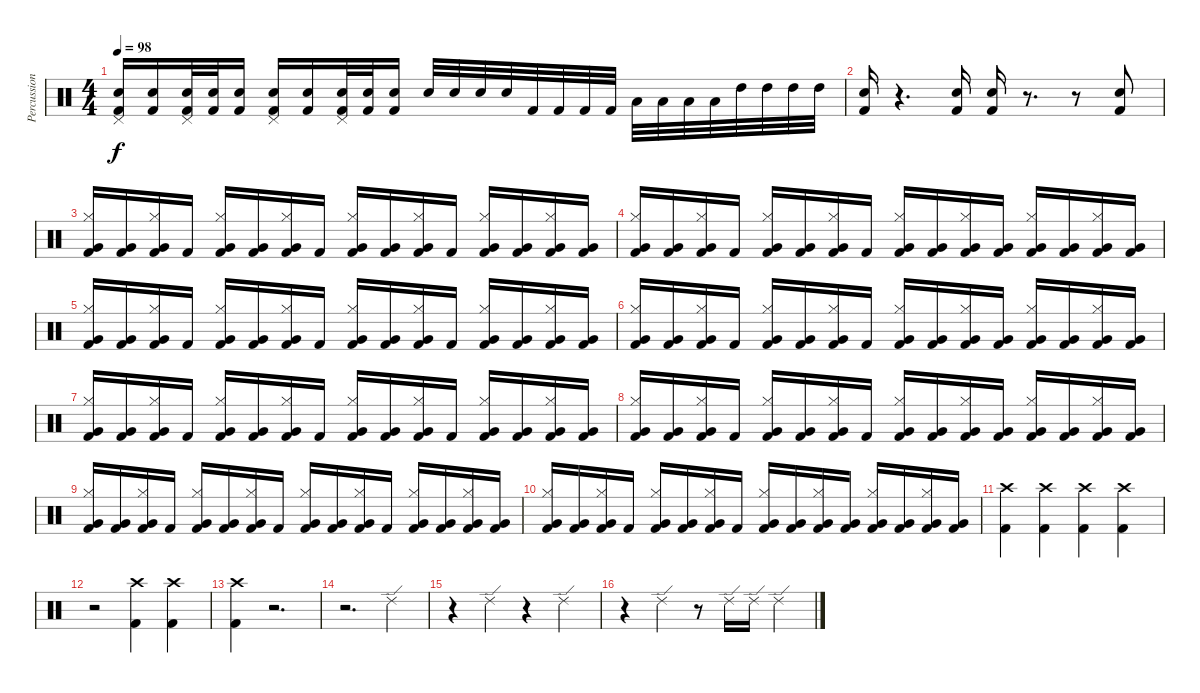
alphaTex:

\track ("Percussion" "Percussion") {instrument percussion}
\staff {score}
\articulation defaults
\ts (4 4)
\tempo 98
\clef neutral
\ks c
("Pedal Hi-Hat (hit)" "Snare (hit) 2" "Kick (hit) 2").16{dy f} ("Snare (hit) 2" "Kick (hit) 2").16 ("Pedal Hi-Hat (hit)" "Snare (hit) 2" "Kick (hit) 2").32 ("Snare (hit) 2" "Kick (hit) 2").32 ("Snare (hit) 2" "Kick (hit) 2").16 ("Pedal Hi-Hat (hit)" "Snare (hit) 2" "Kick (hit) 2").16 ("Snare (hit) 2" "Kick (hit) 2").16 ("Pedal Hi-Hat (hit)" "Snare (hit) 2" "Kick (hit) 2").32 ("Snare (hit) 2" "Kick (hit) 2").32 ("Snare (hit) 2" "Kick (hit) 2").16 "Snare (hit) 2".32 "Snare (hit) 2".32 "Snare (hit) 2".32 "Snare (hit) 2".32 "Kick (hit) 2".32 "Kick (hit) 2".32 "Kick (hit) 2".32 "Kick (hit) 2".32 "Low Tom (hit)".32 "Low Tom (hit)".32 "Low Tom (hit)".32 "Low Tom (hit)".32 "High Tom (hit)".32 "High Tom (hit)".32 "High Tom (hit)".32 "High Tom (hit)".32 |
("Snare (hit) 2" "Kick (hit) 2").16 r.4{d} ("Snare (hit) 2" "Kick (hit) 2").16 ("Snare (hit) 2" "Kick (hit) 2").16 r.8{d} r.8 ("Snare (hit) 2" "Kick (hit) 2").8 |
("Hi-Hat (closed)" "Very Low Tom (hit)" "Kick (hit) 2").16 ("Very Low Tom (hit)" "Kick (hit) 2").16 ("Hi-Hat (closed)" "Very Low Tom (hit)" "Kick (hit) 2").16 "Kick (hit) 2".16 ("Hi-Hat (closed)" "Very Low Tom (hit)" "Kick (hit) 2").16 ("Very Low Tom (hit)" "Kick (hit) 2").16 ("Hi-Hat (closed)" "Very Low Tom (hit)" "Kick (hit) 2").16 "Kick (hit) 2".16 ("Hi-Hat (closed)" "Very Low Tom (hit)" "Kick (hit) 2").16 ("Very Low Tom (hit)" "Kick (hit) 2").16 ("Hi-Hat (closed)" "Very Low Tom (hit)" "Kick (hit) 2").16 "Kick (hit) 2".16 ("Hi-Hat (closed)" "Very Low Tom (hit)" "Kick (hit) 2").16 ("Very Low Tom (hit)" "Kick (hit) 2").16 ("Hi-Hat (closed)" "Very Low Tom (hit)" "Kick (hit) 2").16 ("Very Low Tom (hit)" "Kick (hit) 2").16 |
("Hi-Hat (closed)" "Very Low Tom (hit)" "Kick (hit) 2").16 ("Very Low Tom (hit)" "Kick (hit) 2").16 ("Hi-Hat (closed)" "Very Low Tom (hit)" "Kick (hit) 2").16 "Kick (hit) 2".16 ("Hi-Hat (closed)" "Very Low Tom (hit)" "Kick (hit) 2").16 ("Very Low Tom (hit)" "Kick (hit) 2").16 ("Hi-Hat (closed)" "Very Low Tom (hit)" "Kick (hit) 2").16 "Kick (hit) 2".16 ("Hi-Hat (closed)" "Very Low Tom (hit)" "Kick (hit) 2").16 ("Very Low Tom (hit)" "Kick (hit) 2").16 ("Hi-Hat (closed)" "Very Low Tom (hit)" "Kick (hit) 2").16 ("Very Low Tom (hit)" "Kick (hit) 2").16 ("Hi-Hat (closed)" "Very Low Tom (hit)" "Kick (hit) 2").16 ("Very Low Tom (hit)" "Kick (hit) 2").16 ("Hi-Hat (closed)" "Very Low Tom (hit)" "Kick (hit) 2").16 ("Very Low Tom (hit)" "Kick (hit) 2").16 |
("Hi-Hat (closed)" "Very Low Tom (hit)" "Kick (hit) 2").16 ("Very Low Tom (hit)" "Kick (hit) 2").16 ("Hi-Hat (closed)" "Very Low Tom (hit)" "Kick (hit) 2").16 "Kick (hit) 2".16 ("Hi-Hat (closed)" "Very Low Tom (hit)" "Kick (hit) 2").16 ("Very Low Tom (hit)" "Kick (hit) 2").16 ("Hi-Hat (closed)" "Very Low Tom (hit)" "Kick (hit) 2").16 "Kick (hit) 2".16 ("Hi-Hat (closed)" "Very Low Tom (hit)" "Kick (hit) 2").16 ("Very Low Tom (hit)" "Kick (hit) 2").16 ("Hi-Hat (closed)" "Very Low Tom (hit)" "Kick (hit) 2").16 "Kick (hit) 2".16 ("Hi-Hat (closed)" "Very Low Tom (hit)" "Kick (hit) 2").16 ("Very Low Tom (hit)" "Kick (hit) 2").16 ("Hi-Hat (closed)" "Very Low Tom (hit)" "Kick (hit) 2").16 ("Very Low Tom (hit)" "Kick (hit) 2").16 |
("Hi-Hat (closed)" "Very Low Tom (hit)" "Kick (hit) 2").16 ("Very Low Tom (hit)" "Kick (hit) 2").16 ("Hi-Hat (closed)" "Very Low Tom (hit)" "Kick (hit) 2").16 "Kick (hit) 2".16 ("Hi-Hat (closed)" "Very Low Tom (hit)" "Kick (hit) 2").16 ("Very Low Tom (hit)" "Kick (hit) 2").16 ("Hi-Hat (closed)" "Very Low Tom (hit)" "Kick (hit) 2").16 "Kick (hit) 2".16 ("Hi-Hat (closed)" "Very Low Tom (hit)" "Kick (hit) 2").16 ("Very Low Tom (hit)" "Kick (hit) 2").16 ("Hi-Hat (closed)" "Very Low Tom (hit)" "Kick (hit) 2").16 ("Very Low Tom (hit)" "Kick (hit) 2").16 ("Hi-Hat (closed)" "Very Low Tom (hit)" "Kick (hit) 2").16 ("Very Low Tom (hit)" "Kick (hit) 2").16 ("Hi-Hat (closed)" "Very Low Tom (hit)" "Kick (hit) 2").16 ("Very Low Tom (hit)" "Kick (hit) 2").16 |
("Hi-Hat (closed)" "Very Low Tom (hit)" "Kick (hit) 2").16 ("Very Low Tom (hit)" "Kick (hit) 2").16 ("Hi-Hat (closed)" "Very Low Tom (hit)" "Kick (hit) 2").16 "Kick (hit) 2".16 ("Hi-Hat (closed)" "Very Low Tom (hit)" "Kick (hit) 2").16 ("Very Low Tom (hit)" "Kick (hit) 2").16 ("Hi-Hat (closed)" "Very Low Tom (hit)" "Kick (hit) 2").16 "Kick (hit) 2".16 ("Hi-Hat (closed)" "Very Low Tom (hit)" "Kick (hit) 2").16 ("Very Low Tom (hit)" "Kick (hit) 2").16 ("Hi-Hat (closed)" "Very Low Tom (hit)" "Kick (hit) 2").16 "Kick (hit) 2".16 ("Hi-Hat (closed)" "Very Low Tom (hit)" "Kick (hit) 2").16 ("Very Low Tom (hit)" "Kick (hit) 2").16 ("Hi-Hat (closed)" "Very Low Tom (hit)" "Kick (hit) 2").16 ("Very Low Tom (hit)" "Kick (hit) 2").16 |
("Hi-Hat (closed)" "Very Low Tom (hit)" "Kick (hit) 2").16 ("Very Low Tom (hit)" "Kick (hit) 2").16 ("Hi-Hat (closed)" "Very Low Tom (hit)" "Kick (hit) 2").16 "Kick (hit) 2".16 ("Hi-Hat (closed)" "Very Low Tom (hit)" "Kick (hit) 2").16 ("Very Low Tom (hit)" "Kick (hit) 2").16 ("Hi-Hat (closed)" "Very Low Tom (hit)" "Kick (hit) 2").16 "Kick (hit) 2".16 ("Hi-Hat (closed)" "Very Low Tom (hit)" "Kick (hit) 2").16 ("Very Low Tom (hit)" "Kick (hit) 2").16 ("Hi-Hat (closed)" "Very Low Tom (hit)" "Kick (hit) 2").16 ("Very Low Tom (hit)" "Kick (hit) 2").16 ("Hi-Hat (closed)" "Very Low Tom (hit)" "Kick (hit) 2").16 ("Very Low Tom (hit)" "Kick (hit) 2").16 ("Hi-Hat (closed)" "Very Low Tom (hit)" "Kick (hit) 2").16 ("Very Low Tom (hit)" "Kick (hit) 2").16 |
("Hi-Hat (closed)" "Very Low Tom (hit)" "Kick (hit) 2").16 ("Very Low Tom (hit)" "Kick (hit) 2").16 ("Hi-Hat (closed)" "Very Low Tom (hit)" "Kick (hit) 2").16 "Kick (hit) 2".16 ("Hi-Hat (closed)" "Very Low Tom (hit)" "Kick (hit) 2").16 ("Very Low Tom (hit)" "Kick (hit) 2").16 ("Hi-Hat (closed)" "Very Low Tom (hit)" "Kick (hit) 2").16 "Kick (hit) 2".16 ("Hi-Hat (closed)" "Very Low Tom (hit)" "Kick (hit) 2").16 ("Very Low Tom (hit)" "Kick (hit) 2").16 ("Hi-Hat (closed)" "Very Low Tom (hit)" "Kick (hit) 2").16 "Kick (hit) 2".16 ("Hi-Hat (closed)" "Very Low Tom (hit)" "Kick (hit) 2").16 ("Very Low Tom (hit)" "Kick (hit) 2").16 ("Hi-Hat (closed)" "Very Low Tom (hit)" "Kick (hit) 2").16 ("Very Low Tom (hit)" "Kick (hit) 2").16 |
("Hi-Hat (closed)" "Very Low Tom (hit)" "Kick (hit) 2").16 ("Very Low Tom (hit)" "Kick (hit) 2").16 ("Hi-Hat (closed)" "Very Low Tom (hit)" "Kick (hit) 2").16 "Kick (hit) 2".16 ("Hi-Hat (closed)" "Very Low Tom (hit)" "Kick (hit) 2").16 ("Very Low Tom (hit)" "Kick (hit) 2").16 ("Hi-Hat (closed)" "Very Low Tom (hit)" "Kick (hit) 2").16 "Kick (hit) 2".16 ("Hi-Hat (closed)" "Very Low Tom (hit)" "Kick (hit) 2").16 ("Very Low Tom (hit)" "Kick (hit) 2").16 ("Hi-Hat (closed)" "Very Low Tom (hit)" "Kick (hit) 2").16 ("Very Low Tom (hit)" "Kick (hit) 2").16 ("Hi-Hat (closed)" "Very Low Tom (hit)" "Kick (hit) 2").16 ("Very Low Tom (hit)" "Kick (hit) 2").16 ("Hi-Hat (closed)" "Very Low Tom (hit)" "Kick (hit) 2").16 ("Very Low Tom (hit)" "Kick (hit) 2").16 |
("Crash high (hit)" "Kick (hit) 2").4 ("Crash high (hit)" "Kick (hit) 2").4 ("Crash high (hit)" "Kick (hit) 2").4 ("Crash high (hit)" "Kick (hit) 2").4 |
r.2 ("Crash high (hit)" "Kick (hit) 2").4 ("Crash high (hit)" "Kick (hit) 2").4 |
("Crash high (hit)" "Kick (hit) 2").4 r.2{d} |
r.2{d} "Ride (edge) 2".4 |
r.4 "Ride (edge) 2".4 r.4 "Ride (edge) 2".4 |
r.4 "Ride (edge) 2".4 r.8 "Ride (edge) 2".16 "Ride (edge) 2".16 "Ride (edge) 2".4
